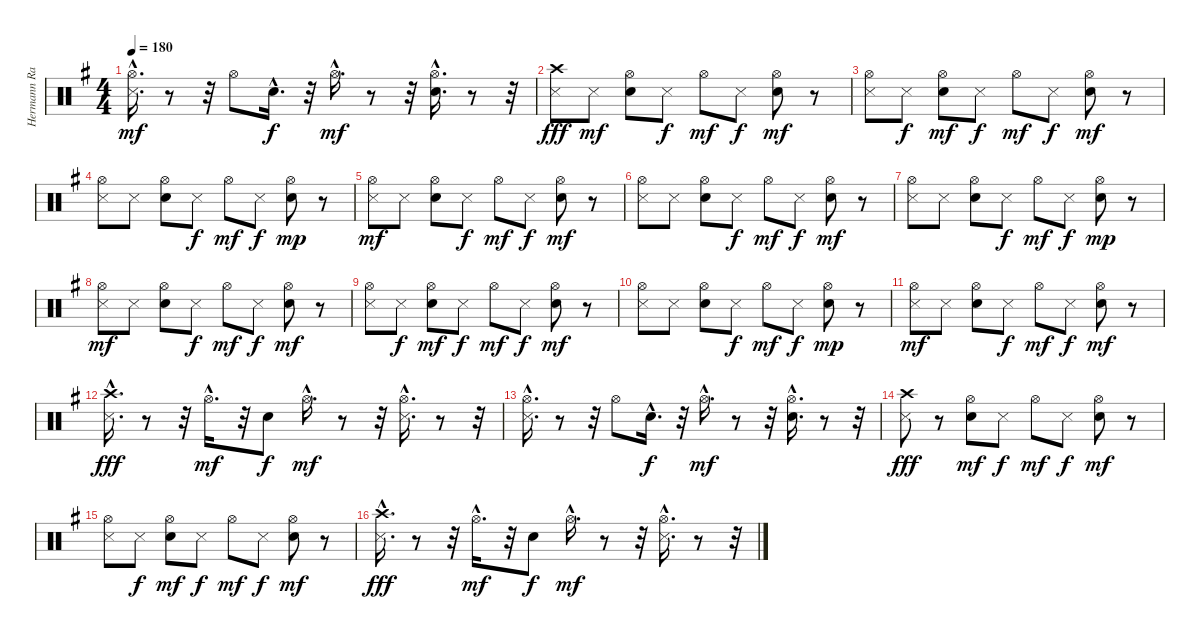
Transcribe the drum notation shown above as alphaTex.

\track ("Hermann Rarebel" "Hermann Ra") {instrument percussion}
\staff {score}
\articulation defaults
\ts (4 4)
\tempo 180
\clef neutral
\ks eminor
("Hi-Hat (open)"{hac} "Metronome (hit)"{hac}).16{d dy mf} r.8 r.32 "Hi-Hat (open)".8 "Snare (hit) 2"{hac}.16{d dy f} r.32 "Hi-Hat (open)"{hac}.16{d dy mf} r.8 r.32 ("Snare (hit) 2"{hac} "Hi-Hat (open)"{hac}).16{d} r.8 r.32 |
("Crash high (hit)" "Metronome (hit)").8{dy fff} "Metronome (hit)".8{dy mf} ("Hi-Hat (open)" "Snare (hit) 2").8 "Metronome (hit)".8{dy f} "Hi-Hat (open)".8{dy mf} "Metronome (hit)".8{dy f} ("Hi-Hat (open)" "Snare (hit) 2").8{dy mf} r.8 |
("Hi-Hat (open)" "Metronome (hit)").8 "Metronome (hit)".8{dy f} ("Hi-Hat (open)" "Snare (hit) 2").8{dy mf} "Metronome (hit)".8{dy f} "Hi-Hat (open)".8{dy mf} "Metronome (hit)".8{dy f} ("Hi-Hat (open)" "Snare (hit) 2").8{dy mf} r.8 |
("Hi-Hat (open)" "Metronome (hit)").8 "Metronome (hit)".8 ("Hi-Hat (open)" "Snare (hit) 2").8 "Metronome (hit)".8{dy f} "Hi-Hat (open)".8{dy mf} "Metronome (hit)".8{dy f} ("Hi-Hat (open)" "Snare (hit) 2").8{dy mp} r.8 |
("Hi-Hat (open)" "Metronome (hit)").8{dy mf} "Metronome (hit)".8 ("Hi-Hat (open)" "Snare (hit) 2").8 "Metronome (hit)".8{dy f} "Hi-Hat (open)".8{dy mf} "Metronome (hit)".8{dy f} ("Hi-Hat (open)" "Snare (hit) 2").8{dy mf} r.8 |
("Hi-Hat (open)" "Metronome (hit)").8 "Metronome (hit)".8 ("Hi-Hat (open)" "Snare (hit) 2").8 "Metronome (hit)".8{dy f} "Hi-Hat (open)".8{dy mf} "Metronome (hit)".8{dy f} ("Hi-Hat (open)" "Snare (hit) 2").8{dy mf} r.8 |
("Hi-Hat (open)" "Metronome (hit)").8 "Metronome (hit)".8 ("Hi-Hat (open)" "Snare (hit) 2").8 "Metronome (hit)".8{dy f} "Hi-Hat (open)".8{dy mf} "Metronome (hit)".8{dy f} ("Hi-Hat (open)" "Snare (hit) 2").8{dy mp} r.8 |
("Hi-Hat (open)" "Metronome (hit)").8{dy mf} "Metronome (hit)".8 ("Hi-Hat (open)" "Snare (hit) 2").8 "Metronome (hit)".8{dy f} "Hi-Hat (open)".8{dy mf} "Metronome (hit)".8{dy f} ("Hi-Hat (open)" "Snare (hit) 2").8{dy mf} r.8 |
("Hi-Hat (open)" "Metronome (hit)").8 "Metronome (hit)".8{dy f} ("Hi-Hat (open)" "Snare (hit) 2").8{dy mf} "Metronome (hit)".8{dy f} "Hi-Hat (open)".8{dy mf} "Metronome (hit)".8{dy f} ("Hi-Hat (open)" "Snare (hit) 2").8{dy mf} r.8 |
("Hi-Hat (open)" "Metronome (hit)").8 "Metronome (hit)".8 ("Hi-Hat (open)" "Snare (hit) 2").8 "Metronome (hit)".8{dy f} "Hi-Hat (open)".8{dy mf} "Metronome (hit)".8{dy f} ("Hi-Hat (open)" "Snare (hit) 2").8{dy mp} r.8 |
("Hi-Hat (open)" "Metronome (hit)").8{dy mf} "Metronome (hit)".8 ("Hi-Hat (open)" "Snare (hit) 2").8 "Metronome (hit)".8{dy f} "Hi-Hat (open)".8{dy mf} "Metronome (hit)".8{dy f} ("Hi-Hat (open)" "Snare (hit) 2").8{dy mf} r.8 |
("Metronome (hit)"{hac} "Crash high (hit)"{hac}).16{d dy fff} r.8 r.32 "Hi-Hat (open)"{hac}.16{d dy mf} r.32 "Snare (hit) 2".8{dy f} "Hi-Hat (open)"{hac}.16{d dy mf} r.8 r.32 ("Hi-Hat (open)"{hac} "Metronome (hit)"{hac}).16{d} r.8 r.32 |
("Hi-Hat (open)"{hac} "Metronome (hit)"{hac}).16{d} r.8 r.32 "Hi-Hat (open)".8 "Snare (hit) 2"{hac}.16{d dy f} r.32 "Hi-Hat (open)"{hac}.16{d dy mf} r.8 r.32 ("Snare (hit) 2"{hac} "Hi-Hat (open)"{hac}).16{d} r.8 r.32 |
("Crash high (hit)" "Metronome (hit)").8{dy fff} r.8 ("Hi-Hat (open)" "Snare (hit) 2").8{dy mf} "Metronome (hit)".8{dy f} "Hi-Hat (open)".8{dy mf} "Metronome (hit)".8{dy f} ("Hi-Hat (open)" "Snare (hit) 2").8{dy mf} r.8 |
("Hi-Hat (open)" "Metronome (hit)").8 "Metronome (hit)".8{dy f} ("Hi-Hat (open)" "Snare (hit) 2").8{dy mf} "Metronome (hit)".8{dy f} "Hi-Hat (open)".8{dy mf} "Metronome (hit)".8{dy f} ("Hi-Hat (open)" "Snare (hit) 2").8{dy mf} r.8 |
("Metronome (hit)"{hac} "Crash high (hit)"{hac}).16{d dy fff} r.8 r.32 "Hi-Hat (open)"{hac}.16{d dy mf} r.32 "Snare (hit) 2".8{dy f} "Hi-Hat (open)"{hac}.16{d dy mf} r.8 r.32 ("Hi-Hat (open)"{hac} "Metronome (hit)"{hac}).16{d} r.8 r.32
